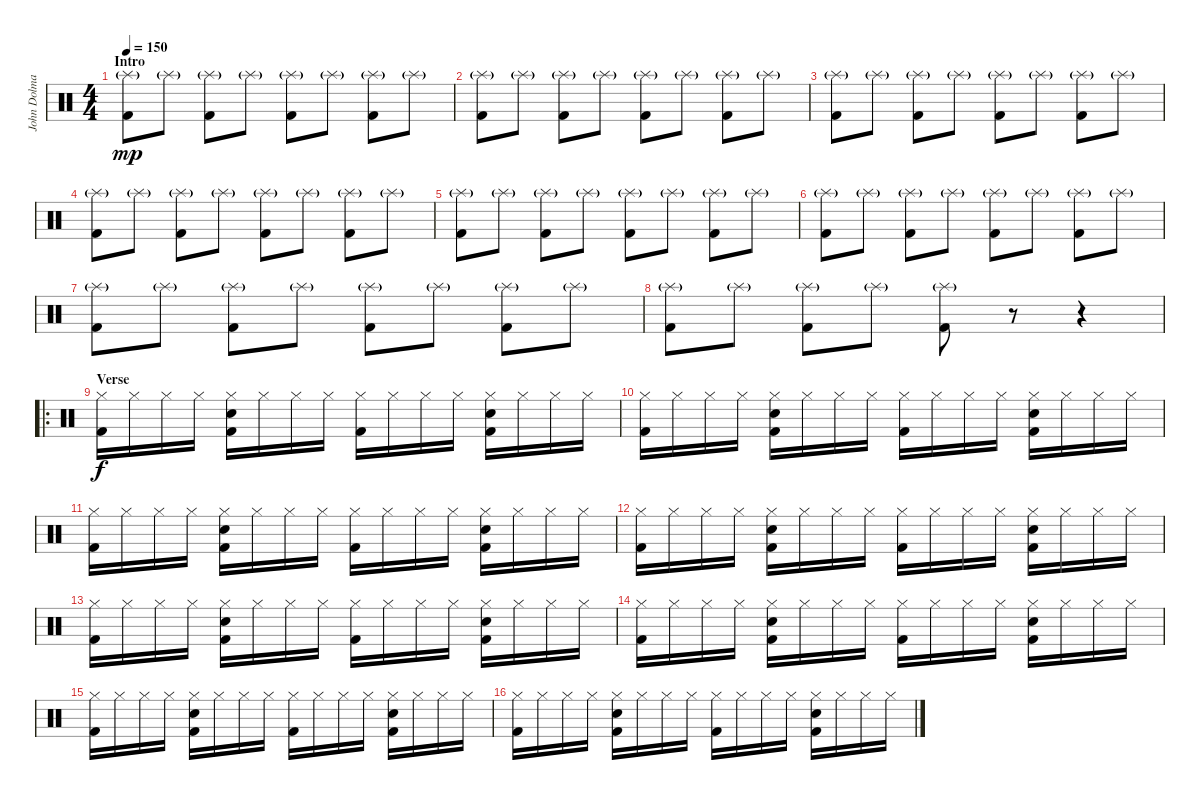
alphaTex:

\track ("John Dolmayan" "John Dolma") {instrument percussion}
\staff {score}
\articulation defaults
\ts (4 4)
\section ("" "Intro")
\tempo 150
\clef neutral
\ks c
("Splash (hit)"{g} "Kick (hit) 2").8{dy mp} "Splash (hit)"{g}.8 ("Splash (hit)"{g} "Kick (hit) 2").8 "Splash (hit)"{g}.8 ("Splash (hit)"{g} "Kick (hit) 2").8 "Splash (hit)"{g}.8 ("Splash (hit)"{g} "Kick (hit) 2").8 "Splash (hit)"{g}.8 |
("Splash (hit)"{g} "Kick (hit) 2").8 "Splash (hit)"{g}.8 ("Splash (hit)"{g} "Kick (hit) 2").8 "Splash (hit)"{g}.8 ("Splash (hit)"{g} "Kick (hit) 2").8 "Splash (hit)"{g}.8 ("Splash (hit)"{g} "Kick (hit) 2").8 "Splash (hit)"{g}.8 |
("Splash (hit)"{g} "Kick (hit) 2").8 "Splash (hit)"{g}.8 ("Splash (hit)"{g} "Kick (hit) 2").8 "Splash (hit)"{g}.8 ("Splash (hit)"{g} "Kick (hit) 2").8 "Splash (hit)"{g}.8 ("Splash (hit)"{g} "Kick (hit) 2").8 "Splash (hit)"{g}.8 |
("Splash (hit)"{g} "Kick (hit) 2").8 "Splash (hit)"{g}.8 ("Splash (hit)"{g} "Kick (hit) 2").8 "Splash (hit)"{g}.8 ("Splash (hit)"{g} "Kick (hit) 2").8 "Splash (hit)"{g}.8 ("Splash (hit)"{g} "Kick (hit) 2").8 "Splash (hit)"{g}.8 |
("Splash (hit)"{g} "Kick (hit) 2").8 "Splash (hit)"{g}.8 ("Splash (hit)"{g} "Kick (hit) 2").8 "Splash (hit)"{g}.8 ("Splash (hit)"{g} "Kick (hit) 2").8 "Splash (hit)"{g}.8 ("Splash (hit)"{g} "Kick (hit) 2").8 "Splash (hit)"{g}.8 |
("Splash (hit)"{g} "Kick (hit) 2").8 "Splash (hit)"{g}.8 ("Splash (hit)"{g} "Kick (hit) 2").8 "Splash (hit)"{g}.8 ("Splash (hit)"{g} "Kick (hit) 2").8 "Splash (hit)"{g}.8 ("Splash (hit)"{g} "Kick (hit) 2").8 "Splash (hit)"{g}.8 |
("Splash (hit)"{g} "Kick (hit) 2").8 "Splash (hit)"{g}.8 ("Splash (hit)"{g} "Kick (hit) 2").8 "Splash (hit)"{g}.8 ("Splash (hit)"{g} "Kick (hit) 2").8 "Splash (hit)"{g}.8 ("Splash (hit)"{g} "Kick (hit) 2").8 "Splash (hit)"{g}.8 |
("Splash (hit)"{g} "Kick (hit) 2").8 "Splash (hit)"{g}.8 ("Splash (hit)"{g} "Kick (hit) 2").8 "Splash (hit)"{g}.8 ("Splash (hit)"{g} "Kick (hit) 2").8 r.8 r.4 |
\ro
\section ("" "Verse")
("Hi-Hat (closed)" "Kick (hit) 2").16{dy f} "Hi-Hat (closed)".16 "Hi-Hat (closed)".16 "Hi-Hat (closed)".16 ("Hi-Hat (closed)" "Electric Snare (hit)" "Kick (hit) 2").16 "Hi-Hat (closed)".16 "Hi-Hat (closed)".16 "Hi-Hat (closed)".16 ("Hi-Hat (closed)" "Kick (hit) 2").16 "Hi-Hat (closed)".16 "Hi-Hat (closed)".16 "Hi-Hat (closed)".16 ("Hi-Hat (closed)" "Electric Snare (hit)" "Kick (hit) 2").16 "Hi-Hat (closed)".16 "Hi-Hat (closed)".16 "Hi-Hat (closed)".16 |
("Hi-Hat (closed)" "Kick (hit) 2").16 "Hi-Hat (closed)".16 "Hi-Hat (closed)".16 "Hi-Hat (closed)".16 ("Hi-Hat (closed)" "Electric Snare (hit)" "Kick (hit) 2").16 "Hi-Hat (closed)".16 "Hi-Hat (closed)".16 "Hi-Hat (closed)".16 ("Hi-Hat (closed)" "Kick (hit) 2").16 "Hi-Hat (closed)".16 "Hi-Hat (closed)".16 "Hi-Hat (closed)".16 ("Hi-Hat (closed)" "Electric Snare (hit)" "Kick (hit) 2").16 "Hi-Hat (closed)".16 "Hi-Hat (closed)".16 "Hi-Hat (closed)".16 |
("Hi-Hat (closed)" "Kick (hit) 2").16 "Hi-Hat (closed)".16 "Hi-Hat (closed)".16 "Hi-Hat (closed)".16 ("Hi-Hat (closed)" "Electric Snare (hit)" "Kick (hit) 2").16 "Hi-Hat (closed)".16 "Hi-Hat (closed)".16 "Hi-Hat (closed)".16 ("Hi-Hat (closed)" "Kick (hit) 2").16 "Hi-Hat (closed)".16 "Hi-Hat (closed)".16 "Hi-Hat (closed)".16 ("Hi-Hat (closed)" "Electric Snare (hit)" "Kick (hit) 2").16 "Hi-Hat (closed)".16 "Hi-Hat (closed)".16 "Hi-Hat (closed)".16 |
("Hi-Hat (closed)" "Kick (hit) 2").16 "Hi-Hat (closed)".16 "Hi-Hat (closed)".16 "Hi-Hat (closed)".16 ("Hi-Hat (closed)" "Electric Snare (hit)" "Kick (hit) 2").16 "Hi-Hat (closed)".16 "Hi-Hat (closed)".16 "Hi-Hat (closed)".16 ("Hi-Hat (closed)" "Kick (hit) 2").16 "Hi-Hat (closed)".16 "Hi-Hat (closed)".16 "Hi-Hat (closed)".16 ("Hi-Hat (closed)" "Electric Snare (hit)" "Kick (hit) 2").16 "Hi-Hat (closed)".16 "Hi-Hat (closed)".16 "Hi-Hat (closed)".16 |
("Hi-Hat (closed)" "Kick (hit) 2").16 "Hi-Hat (closed)".16 "Hi-Hat (closed)".16 "Hi-Hat (closed)".16 ("Hi-Hat (closed)" "Electric Snare (hit)" "Kick (hit) 2").16 "Hi-Hat (closed)".16 "Hi-Hat (closed)".16 "Hi-Hat (closed)".16 ("Hi-Hat (closed)" "Kick (hit) 2").16 "Hi-Hat (closed)".16 "Hi-Hat (closed)".16 "Hi-Hat (closed)".16 ("Hi-Hat (closed)" "Electric Snare (hit)" "Kick (hit) 2").16 "Hi-Hat (closed)".16 "Hi-Hat (closed)".16 "Hi-Hat (closed)".16 |
("Hi-Hat (closed)" "Kick (hit) 2").16 "Hi-Hat (closed)".16 "Hi-Hat (closed)".16 "Hi-Hat (closed)".16 ("Hi-Hat (closed)" "Electric Snare (hit)" "Kick (hit) 2").16 "Hi-Hat (closed)".16 "Hi-Hat (closed)".16 "Hi-Hat (closed)".16 ("Hi-Hat (closed)" "Kick (hit) 2").16 "Hi-Hat (closed)".16 "Hi-Hat (closed)".16 "Hi-Hat (closed)".16 ("Hi-Hat (closed)" "Electric Snare (hit)" "Kick (hit) 2").16 "Hi-Hat (closed)".16 "Hi-Hat (closed)".16 "Hi-Hat (closed)".16 |
("Hi-Hat (closed)" "Kick (hit) 2").16 "Hi-Hat (closed)".16 "Hi-Hat (closed)".16 "Hi-Hat (closed)".16 ("Hi-Hat (closed)" "Electric Snare (hit)" "Kick (hit) 2").16 "Hi-Hat (closed)".16 "Hi-Hat (closed)".16 "Hi-Hat (closed)".16 ("Hi-Hat (closed)" "Kick (hit) 2").16 "Hi-Hat (closed)".16 "Hi-Hat (closed)".16 "Hi-Hat (closed)".16 ("Hi-Hat (closed)" "Electric Snare (hit)" "Kick (hit) 2").16 "Hi-Hat (closed)".16 "Hi-Hat (closed)".16 "Hi-Hat (closed)".16 |
("Hi-Hat (closed)" "Kick (hit) 2").16 "Hi-Hat (closed)".16 "Hi-Hat (closed)".16 "Hi-Hat (closed)".16 ("Hi-Hat (closed)" "Electric Snare (hit)" "Kick (hit) 2").16 "Hi-Hat (closed)".16 "Hi-Hat (closed)".16 "Hi-Hat (closed)".16 ("Hi-Hat (closed)" "Kick (hit) 2").16 "Hi-Hat (closed)".16 "Hi-Hat (closed)".16 "Hi-Hat (closed)".16 ("Hi-Hat (closed)" "Electric Snare (hit)" "Kick (hit) 2").16 "Hi-Hat (closed)".16 "Hi-Hat (closed)".16 "Hi-Hat (closed)".16
